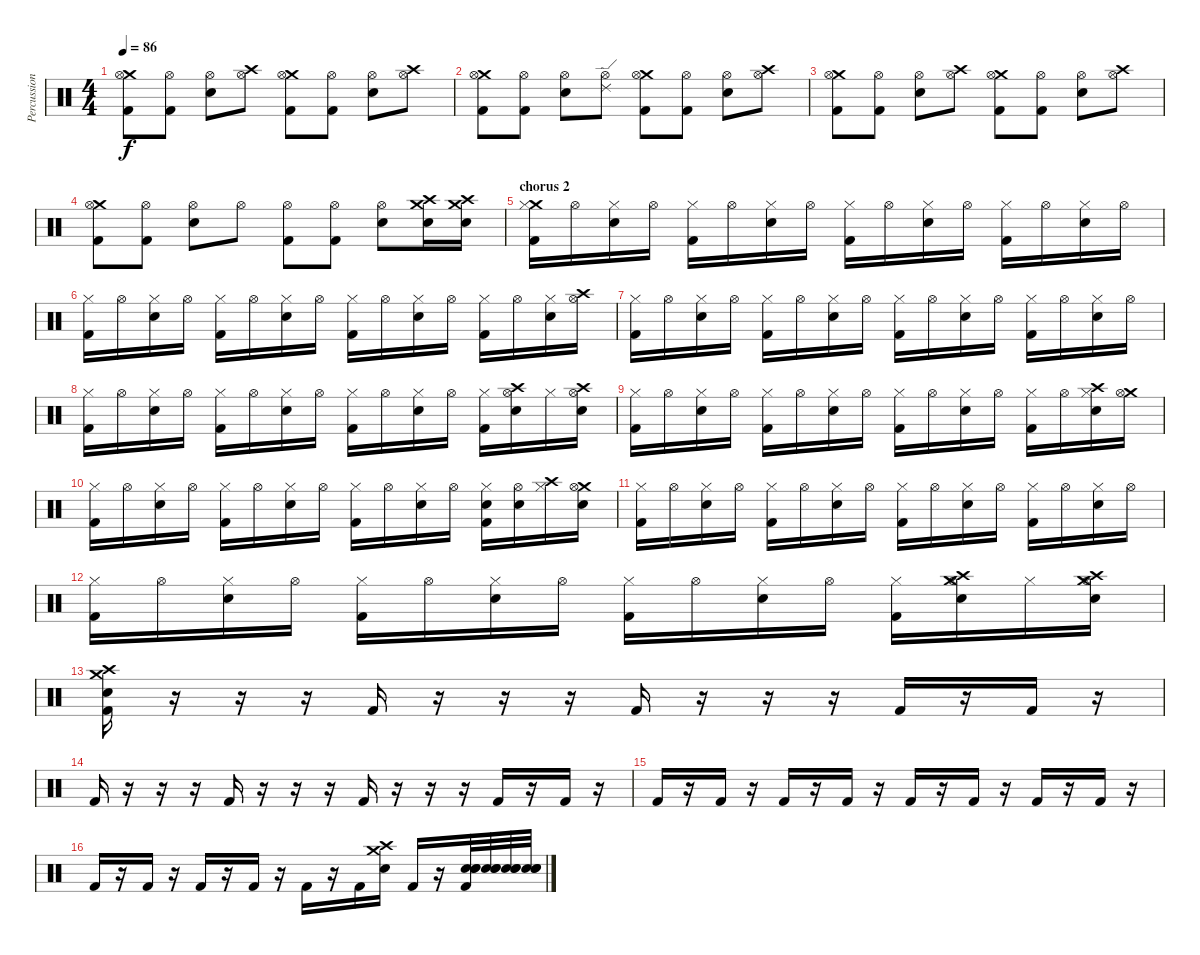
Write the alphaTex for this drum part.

\track ("Percussion" "Percussion") {instrument percussion}
\staff {score}
\articulation defaults
\ts (4 4)
\tempo 86
\clef neutral
\ks c
("Crash medium (hit)" "Hi-Hat (open)" "Kick (hit) 2").8{dy f} ("Hi-Hat (open)" "Kick (hit) 2").8 ("Hi-Hat (open)" "Electric Snare (hit)").8 ("Crash high (hit)" "Hi-Hat (open)").8 ("Crash medium (hit)" "Hi-Hat (open)" "Kick (hit) 2").8 ("Hi-Hat (open)" "Kick (hit) 2").8 ("Hi-Hat (open)" "Electric Snare (hit)").8 ("Crash high (hit)" "Hi-Hat (open)").8 |
("Crash medium (hit)" "Hi-Hat (open)" "Kick (hit) 2").8 ("Hi-Hat (open)" "Kick (hit) 2").8 ("Hi-Hat (open)" "Electric Snare (hit)").8 ("Ride (edge) 2" "Hi-Hat (open)").8 ("Crash medium (hit)" "Hi-Hat (open)" "Kick (hit) 2").8 ("Hi-Hat (open)" "Kick (hit) 2").8 ("Hi-Hat (open)" "Electric Snare (hit)").8 ("Crash high (hit)" "Hi-Hat (open)").8 |
("Crash medium (hit)" "Hi-Hat (open)" "Kick (hit) 2").8 ("Hi-Hat (open)" "Kick (hit) 2").8 ("Hi-Hat (open)" "Electric Snare (hit)").8 ("Crash high (hit)" "Hi-Hat (open)").8 ("Crash medium (hit)" "Hi-Hat (open)" "Kick (hit) 2").8 ("Hi-Hat (open)" "Kick (hit) 2").8 ("Hi-Hat (open)" "Electric Snare (hit)").8 ("Crash high (hit)" "Hi-Hat (open)").8 |
("Crash medium (hit)" "Hi-Hat (open)" "Kick (hit) 2").8 ("Hi-Hat (open)" "Kick (hit) 2").8 ("Hi-Hat (open)" "Electric Snare (hit)").8 "Hi-Hat (open)".8 ("Hi-Hat (open)" "Kick (hit) 2").8 ("Hi-Hat (open)" "Kick (hit) 2").8 ("Hi-Hat (open)" "Electric Snare (hit)").8 ("Crash high (hit)" "Crash medium (hit)" "Electric Snare (hit)").16 ("Crash high (hit)" "Crash medium (hit)" "Electric Snare (hit)").16 |
\section ("" "chorus 2")
("Crash medium (hit)" "Hi-Hat (closed)" "Kick (hit) 2").16 "Hi-Hat (open)".16 ("Hi-Hat (closed)" "Electric Snare (hit)").16 "Hi-Hat (open)".16 ("Hi-Hat (closed)" "Kick (hit) 2").16 "Hi-Hat (open)".16 ("Hi-Hat (closed)" "Electric Snare (hit)").16 "Hi-Hat (open)".16 ("Hi-Hat (closed)" "Kick (hit) 2").16 "Hi-Hat (open)".16 ("Hi-Hat (closed)" "Electric Snare (hit)").16 "Hi-Hat (open)".16 ("Hi-Hat (closed)" "Kick (hit) 2").16 "Hi-Hat (open)".16 ("Hi-Hat (closed)" "Electric Snare (hit)").16 "Hi-Hat (open)".16 |
("Hi-Hat (closed)" "Kick (hit) 2").16 "Hi-Hat (open)".16 ("Hi-Hat (closed)" "Electric Snare (hit)").16 "Hi-Hat (open)".16 ("Hi-Hat (closed)" "Kick (hit) 2").16 "Hi-Hat (open)".16 ("Hi-Hat (closed)" "Electric Snare (hit)").16 "Hi-Hat (open)".16 ("Hi-Hat (closed)" "Kick (hit) 2").16 "Hi-Hat (open)".16 ("Hi-Hat (closed)" "Electric Snare (hit)").16 "Hi-Hat (open)".16 ("Hi-Hat (closed)" "Kick (hit) 2").16 "Hi-Hat (open)".16 ("Hi-Hat (closed)" "Electric Snare (hit)").16 ("Crash high (hit)" "Hi-Hat (open)").16 |
("Hi-Hat (closed)" "Kick (hit) 2").16 "Hi-Hat (open)".16 ("Hi-Hat (closed)" "Electric Snare (hit)").16 "Hi-Hat (open)".16 ("Hi-Hat (closed)" "Kick (hit) 2").16 "Hi-Hat (open)".16 ("Hi-Hat (closed)" "Electric Snare (hit)").16 "Hi-Hat (open)".16 ("Hi-Hat (closed)" "Kick (hit) 2").16 "Hi-Hat (open)".16 ("Hi-Hat (closed)" "Electric Snare (hit)").16 "Hi-Hat (open)".16 ("Hi-Hat (closed)" "Kick (hit) 2").16 "Hi-Hat (open)".16 ("Hi-Hat (closed)" "Electric Snare (hit)").16 "Hi-Hat (open)".16 |
("Hi-Hat (closed)" "Kick (hit) 2").16 "Hi-Hat (open)".16 ("Hi-Hat (closed)" "Electric Snare (hit)").16 "Hi-Hat (open)".16 ("Hi-Hat (closed)" "Kick (hit) 2").16 "Hi-Hat (open)".16 ("Hi-Hat (closed)" "Electric Snare (hit)").16 "Hi-Hat (open)".16 ("Hi-Hat (closed)" "Kick (hit) 2").16 "Hi-Hat (open)".16 ("Hi-Hat (closed)" "Electric Snare (hit)").16 "Hi-Hat (open)".16 ("Hi-Hat (closed)" "Kick (hit) 2").16 ("Crash high (hit)" "Hi-Hat (open)" "Electric Snare (hit)").16 "Hi-Hat (closed)".16 ("Crash high (hit)" "Hi-Hat (open)" "Electric Snare (hit)").16 |
("Hi-Hat (closed)" "Kick (hit) 2").16 "Hi-Hat (open)".16 ("Hi-Hat (closed)" "Electric Snare (hit)").16 "Hi-Hat (open)".16 ("Hi-Hat (closed)" "Kick (hit) 2").16 "Hi-Hat (open)".16 ("Hi-Hat (closed)" "Electric Snare (hit)").16 "Hi-Hat (open)".16 ("Hi-Hat (closed)" "Kick (hit) 2").16 "Hi-Hat (open)".16 ("Hi-Hat (closed)" "Electric Snare (hit)").16 "Hi-Hat (open)".16 ("Hi-Hat (closed)" "Kick (hit) 2").16 "Hi-Hat (open)".16 ("Crash high (hit)" "Hi-Hat (closed)" "Electric Snare (hit)").16 ("Crash medium (hit)" "Hi-Hat (open)").16 |
("Hi-Hat (closed)" "Kick (hit) 2").16 "Hi-Hat (open)".16 ("Hi-Hat (closed)" "Electric Snare (hit)").16 "Hi-Hat (open)".16 ("Hi-Hat (closed)" "Kick (hit) 2").16 "Hi-Hat (open)".16 ("Hi-Hat (closed)" "Electric Snare (hit)").16 "Hi-Hat (open)".16 ("Hi-Hat (closed)" "Kick (hit) 2").16 "Hi-Hat (open)".16 ("Hi-Hat (closed)" "Electric Snare (hit)").16 "Hi-Hat (open)".16 ("Hi-Hat (closed)" "Electric Snare (hit)" "Kick (hit) 2").16 ("Hi-Hat (open)" "Electric Snare (hit)").16 ("Crash high (hit)" "Hi-Hat (closed)").16 ("Crash medium (hit)" "Hi-Hat (open)" "Electric Snare (hit)").16 |
("Hi-Hat (closed)" "Kick (hit) 2").16 "Hi-Hat (open)".16 ("Hi-Hat (closed)" "Electric Snare (hit)").16 "Hi-Hat (open)".16 ("Hi-Hat (closed)" "Kick (hit) 2").16 "Hi-Hat (open)".16 ("Hi-Hat (closed)" "Electric Snare (hit)").16 "Hi-Hat (open)".16 ("Hi-Hat (closed)" "Kick (hit) 2").16 "Hi-Hat (open)".16 ("Hi-Hat (closed)" "Electric Snare (hit)").16 "Hi-Hat (open)".16 ("Hi-Hat (closed)" "Kick (hit) 2").16 "Hi-Hat (open)".16 ("Hi-Hat (closed)" "Electric Snare (hit)").16 "Hi-Hat (open)".16 |
("Hi-Hat (closed)" "Kick (hit) 2").16 "Hi-Hat (open)".16 ("Hi-Hat (closed)" "Electric Snare (hit)").16 "Hi-Hat (open)".16 ("Hi-Hat (closed)" "Kick (hit) 2").16 "Hi-Hat (open)".16 ("Hi-Hat (closed)" "Electric Snare (hit)").16 "Hi-Hat (open)".16 ("Hi-Hat (closed)" "Kick (hit) 2").16 "Hi-Hat (open)".16 ("Hi-Hat (closed)" "Electric Snare (hit)").16 "Hi-Hat (open)".16 ("Hi-Hat (closed)" "Kick (hit) 2").16 ("Crash high (hit)" "Crash medium (hit)" "Hi-Hat (open)" "Electric Snare (hit)").16 "Hi-Hat (closed)".16 ("Crash high (hit)" "Crash medium (hit)" "Hi-Hat (open)" "Electric Snare (hit)").16 |
("Crash high (hit)" "Crash medium (hit)" "Electric Snare (hit)" "Kick (hit) 2").16 r.16 r.16 r.16 "Kick (hit) 2".16 r.16 r.16 r.16 "Kick (hit) 2".16 r.16 r.16 r.16 "Kick (hit) 2".16 r.16 "Kick (hit) 2".16 r.16 |
"Kick (hit) 2".16 r.16 r.16 r.16 "Kick (hit) 2".16 r.16 r.16 r.16 "Kick (hit) 2".16 r.16 r.16 r.16 "Kick (hit) 2".16 r.16 "Kick (hit) 2".16 r.16 |
"Kick (hit) 2".16 r.16 "Kick (hit) 2".16 r.16 "Kick (hit) 2".16 r.16 "Kick (hit) 2".16 r.16 "Kick (hit) 2".16 r.16 "Kick (hit) 2".16 r.16 "Kick (hit) 2".16 r.16 "Kick (hit) 2".16 r.16 |
"Kick (hit) 2".16 r.16 "Kick (hit) 2".16 r.16 "Kick (hit) 2".16 r.16 "Kick (hit) 2".16 r.16 "Kick (hit) 2".16 r.16 "Kick (hit) 2".16 ("Crash medium (hit)" "Crash high (hit)" "Electric Snare (hit)").16 "Kick (hit) 2".16 r.16 ("Snare (hit) 2" "Snare (hit) 2" "Snare (hit) 2" "Kick (hit) 2").32 ("Snare (hit) 2" "Snare (hit) 2" "Snare (hit) 2").32 ("Snare (hit) 2" "Snare (hit) 2" "Snare (hit) 2").32 ("Snare (hit) 2" "Snare (hit) 2" "Snare (hit) 2").32
